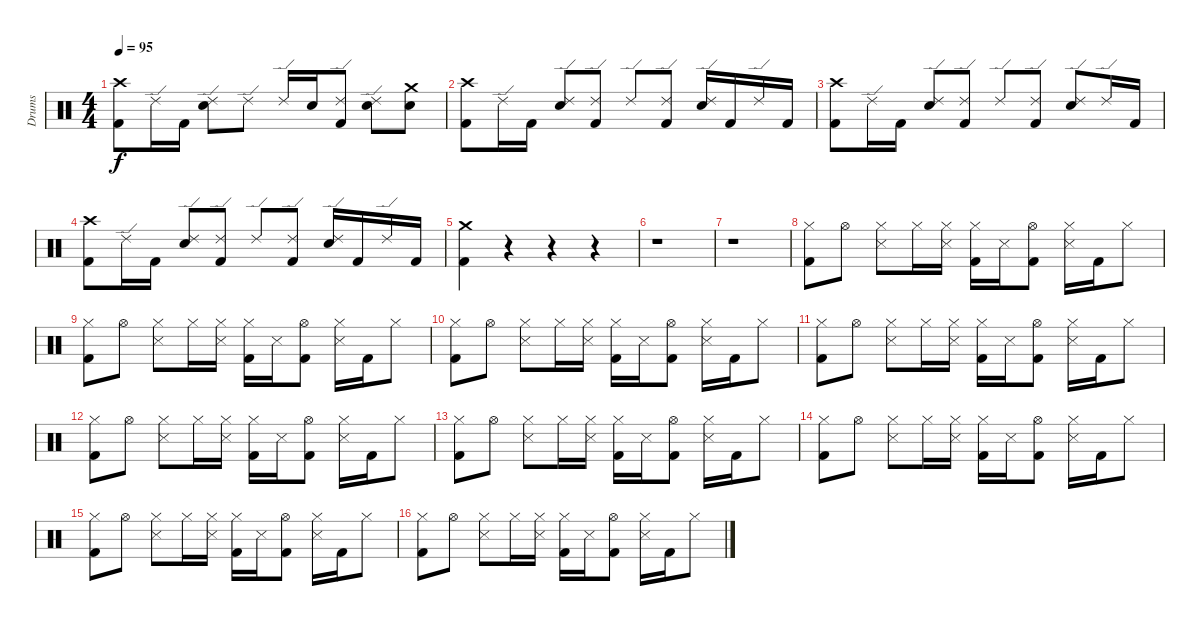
\track ("Drums" "Drums") {instrument percussion}
\staff {score}
\articulation defaults
\ts (4 4)
\tempo 95
\clef neutral
\ks c
("Crash high (hit)" "Kick (hit) 2").8{dy f} "Ride (edge) 2".16 "Kick (hit) 2".16 ("Ride (edge) 2" "Snare (hit) 2").8 "Ride (edge) 2".8 "Ride (edge) 2".16 "Snare (hit) 2".16 ("Ride (edge) 2" "Kick (hit) 2").8 ("Ride (edge) 2" "Snare (hit) 2").8 ("Crash medium (hit)" "Snare (hit) 2").8 |
("Crash high (hit)" "Kick (hit) 2").8 "Ride (edge) 2".16 "Kick (hit) 2".16 ("Ride (edge) 2" "Snare (hit) 2").8 ("Ride (edge) 2" "Kick (hit) 2").8 "Ride (edge) 2".8 ("Ride (edge) 2" "Kick (hit) 2").8 ("Ride (edge) 2" "Snare (hit) 2").16 "Kick (hit) 2".16 "Ride (edge) 2".16 "Kick (hit) 2".16 |
("Crash high (hit)" "Kick (hit) 2").8 "Ride (edge) 2".16 "Kick (hit) 2".16 ("Ride (edge) 2" "Snare (hit) 2").8 ("Ride (edge) 2" "Kick (hit) 2").8 "Ride (edge) 2".8 ("Ride (edge) 2" "Kick (hit) 2").8 ("Ride (edge) 2" "Snare (hit) 2").8 "Ride (edge) 2".16 "Kick (hit) 2".16 |
("Crash high (hit)" "Kick (hit) 2").8 "Ride (edge) 2".16 "Kick (hit) 2".16 ("Ride (edge) 2" "Snare (hit) 2").8 ("Ride (edge) 2" "Kick (hit) 2").8 "Ride (edge) 2".8 ("Ride (edge) 2" "Kick (hit) 2").8 ("Ride (edge) 2" "Snare (hit) 2").16 "Kick (hit) 2".16 "Ride (edge) 2".16 "Kick (hit) 2".16 |
("Crash medium (hit)" "Kick (hit) 2").4 r.4 r.4 r.4 |
r.1 |
r.1 |
("Hi-Hat (closed)" "Kick (hit) 2").8{volume 9 balance 5} "Hi-Hat (open)".8 ("Hi-Hat (closed)" "Snare (side stick) 3").8 "Hi-Hat (closed)".16 ("Hi-Hat (closed)" "Snare (side stick) 3").16 ("Hi-Hat (closed)" "Kick (hit) 2").16 "Snare (side stick) 3".16 ("Hi-Hat (open)" "Kick (hit) 2").8 ("Hi-Hat (closed)" "Snare (side stick) 3").16 "Kick (hit) 2".16 "Hi-Hat (closed)".8 |
("Hi-Hat (closed)" "Kick (hit) 2").8 "Hi-Hat (open)".8 ("Hi-Hat (closed)" "Snare (side stick) 3").8 "Hi-Hat (closed)".16 ("Hi-Hat (closed)" "Snare (side stick) 3").16 ("Hi-Hat (closed)" "Kick (hit) 2").16 "Snare (side stick) 3".16 ("Hi-Hat (open)" "Kick (hit) 2").8 ("Hi-Hat (closed)" "Snare (side stick) 3").16 "Kick (hit) 2".16 "Hi-Hat (closed)".8 |
("Hi-Hat (closed)" "Kick (hit) 2").8 "Hi-Hat (open)".8 ("Hi-Hat (closed)" "Snare (side stick) 3").8 "Hi-Hat (closed)".16 ("Hi-Hat (closed)" "Snare (side stick) 3").16 ("Hi-Hat (closed)" "Kick (hit) 2").16 "Snare (side stick) 3".16 ("Hi-Hat (open)" "Kick (hit) 2").8 ("Hi-Hat (closed)" "Snare (side stick) 3").16 "Kick (hit) 2".16 "Hi-Hat (closed)".8 |
("Hi-Hat (closed)" "Kick (hit) 2").8 "Hi-Hat (open)".8 ("Hi-Hat (closed)" "Snare (side stick) 3").8 "Hi-Hat (closed)".16 ("Hi-Hat (closed)" "Snare (side stick) 3").16 ("Hi-Hat (closed)" "Kick (hit) 2").16 "Snare (side stick) 3".16 ("Hi-Hat (open)" "Kick (hit) 2").8 ("Hi-Hat (closed)" "Snare (side stick) 3").16 "Kick (hit) 2".16 "Hi-Hat (closed)".8 |
("Hi-Hat (closed)" "Kick (hit) 2").8 "Hi-Hat (open)".8 ("Hi-Hat (closed)" "Snare (side stick) 3").8 "Hi-Hat (closed)".16 ("Hi-Hat (closed)" "Snare (side stick) 3").16 ("Hi-Hat (closed)" "Kick (hit) 2").16 "Snare (side stick) 3".16 ("Hi-Hat (open)" "Kick (hit) 2").8 ("Hi-Hat (closed)" "Snare (side stick) 3").16 "Kick (hit) 2".16 "Hi-Hat (closed)".8 |
("Hi-Hat (closed)" "Kick (hit) 2").8 "Hi-Hat (open)".8 ("Hi-Hat (closed)" "Snare (side stick) 3").8 "Hi-Hat (closed)".16 ("Hi-Hat (closed)" "Snare (side stick) 3").16 ("Hi-Hat (closed)" "Kick (hit) 2").16 "Snare (side stick) 3".16 ("Hi-Hat (open)" "Kick (hit) 2").8 ("Hi-Hat (closed)" "Snare (side stick) 3").16 "Kick (hit) 2".16 "Hi-Hat (closed)".8 |
("Hi-Hat (closed)" "Kick (hit) 2").8 "Hi-Hat (open)".8 ("Hi-Hat (closed)" "Snare (side stick) 3").8 "Hi-Hat (closed)".16 ("Hi-Hat (closed)" "Snare (side stick) 3").16 ("Hi-Hat (closed)" "Kick (hit) 2").16 "Snare (side stick) 3".16 ("Hi-Hat (open)" "Kick (hit) 2").8 ("Hi-Hat (closed)" "Snare (side stick) 3").16 "Kick (hit) 2".16 "Hi-Hat (closed)".8 |
("Hi-Hat (closed)" "Kick (hit) 2").8 "Hi-Hat (open)".8 ("Hi-Hat (closed)" "Snare (side stick) 3").8 "Hi-Hat (closed)".16 ("Hi-Hat (closed)" "Snare (side stick) 3").16 ("Hi-Hat (closed)" "Kick (hit) 2").16 "Snare (side stick) 3".16 ("Hi-Hat (open)" "Kick (hit) 2").8 ("Hi-Hat (closed)" "Snare (side stick) 3").16 "Kick (hit) 2".16 "Hi-Hat (closed)".8 |
("Hi-Hat (closed)" "Kick (hit) 2").8 "Hi-Hat (open)".8 ("Hi-Hat (closed)" "Snare (side stick) 3").8 "Hi-Hat (closed)".16 ("Hi-Hat (closed)" "Snare (side stick) 3").16 ("Hi-Hat (closed)" "Kick (hit) 2").16 "Snare (side stick) 3".16 ("Hi-Hat (open)" "Kick (hit) 2").8 ("Hi-Hat (closed)" "Snare (side stick) 3").16 "Kick (hit) 2".16 "Hi-Hat (closed)".8
